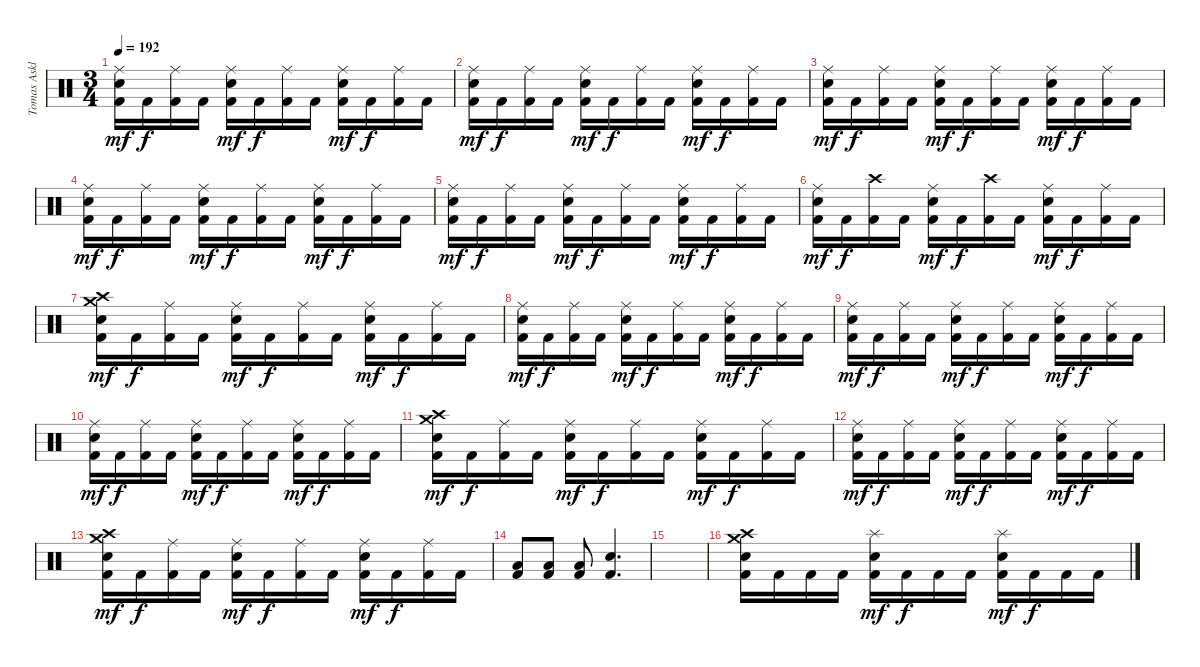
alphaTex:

\track ("Tomas Asklund" "Tomas Askl") {instrument percussion}
\staff {score}
\articulation defaults
\ts (3 4)
\tempo 192
\clef neutral
\ks c
("Ride (middle)" "Snare (hit) 2" "Kick (hit) 2").16{dy mf} "Kick (hit) 2".16{dy f} ("Ride (middle)" "Kick (hit) 2").16 "Kick (hit) 2".16 ("Ride (middle)" "Snare (hit) 2" "Kick (hit) 2").16{dy mf} "Kick (hit) 2".16{dy f} ("Ride (middle)" "Kick (hit) 2").16 "Kick (hit) 2".16 ("Ride (middle)" "Snare (hit) 2" "Kick (hit) 2").16{dy mf} "Kick (hit) 2".16{dy f} ("Ride (middle)" "Kick (hit) 2").16 "Kick (hit) 2".16 |
("Ride (middle)" "Snare (hit) 2" "Kick (hit) 2").16{dy mf} "Kick (hit) 2".16{dy f} ("Ride (middle)" "Kick (hit) 2").16 "Kick (hit) 2".16 ("Ride (middle)" "Snare (hit) 2" "Kick (hit) 2").16{dy mf} "Kick (hit) 2".16{dy f} ("Ride (middle)" "Kick (hit) 2").16 "Kick (hit) 2".16 ("Ride (middle)" "Snare (hit) 2" "Kick (hit) 2").16{dy mf} "Kick (hit) 2".16{dy f} ("Ride (middle)" "Kick (hit) 2").16 "Kick (hit) 2".16 |
("Ride (middle)" "Snare (hit) 2" "Kick (hit) 2").16{dy mf} "Kick (hit) 2".16{dy f} ("Ride (middle)" "Kick (hit) 2").16 "Kick (hit) 2".16 ("Ride (middle)" "Snare (hit) 2" "Kick (hit) 2").16{dy mf} "Kick (hit) 2".16{dy f} ("Ride (middle)" "Kick (hit) 2").16 "Kick (hit) 2".16 ("Ride (middle)" "Snare (hit) 2" "Kick (hit) 2").16{dy mf} "Kick (hit) 2".16{dy f} ("Ride (middle)" "Kick (hit) 2").16 "Kick (hit) 2".16 |
("Ride (middle)" "Snare (hit) 2" "Kick (hit) 2").16{dy mf} "Kick (hit) 2".16{dy f} ("Ride (middle)" "Kick (hit) 2").16 "Kick (hit) 2".16 ("Ride (middle)" "Snare (hit) 2" "Kick (hit) 2").16{dy mf} "Kick (hit) 2".16{dy f} ("Ride (middle)" "Kick (hit) 2").16 "Kick (hit) 2".16 ("Ride (middle)" "Snare (hit) 2" "Kick (hit) 2").16{dy mf} "Kick (hit) 2".16{dy f} ("Ride (middle)" "Kick (hit) 2").16 "Kick (hit) 2".16 |
("Ride (middle)" "Snare (hit) 2" "Kick (hit) 2").16{dy mf} "Kick (hit) 2".16{dy f} ("Ride (middle)" "Kick (hit) 2").16 "Kick (hit) 2".16 ("Ride (middle)" "Snare (hit) 2" "Kick (hit) 2").16{dy mf} "Kick (hit) 2".16{dy f} ("Ride (middle)" "Kick (hit) 2").16 "Kick (hit) 2".16 ("Ride (middle)" "Snare (hit) 2" "Kick (hit) 2").16{dy mf} "Kick (hit) 2".16{dy f} ("Ride (middle)" "Kick (hit) 2").16 "Kick (hit) 2".16 |
("Ride (middle)" "Snare (hit) 2" "Kick (hit) 2").16{dy mf} "Kick (hit) 2".16{dy f} ("Crash high (hit)" "Kick (hit) 2").16 "Kick (hit) 2".16 ("Ride (middle)" "Snare (hit) 2" "Kick (hit) 2").16{dy mf} "Kick (hit) 2".16{dy f} ("Crash high (hit)" "Kick (hit) 2").16 "Kick (hit) 2".16 ("Ride (middle)" "Snare (hit) 2" "Kick (hit) 2").16{dy mf} "Kick (hit) 2".16{dy f} ("Ride (middle)" "Kick (hit) 2").16 "Kick (hit) 2".16 |
("Crash medium (hit)" "Crash high (hit)" "Snare (hit) 2" "Kick (hit) 2").16{dy mf} "Kick (hit) 2".16{dy f} ("Ride (middle)" "Kick (hit) 2").16 "Kick (hit) 2".16 ("Ride (middle)" "Snare (hit) 2" "Kick (hit) 2").16{dy mf} "Kick (hit) 2".16{dy f} ("Ride (middle)" "Kick (hit) 2").16 "Kick (hit) 2".16 ("Ride (middle)" "Snare (hit) 2" "Kick (hit) 2").16{dy mf} "Kick (hit) 2".16{dy f} ("Ride (middle)" "Kick (hit) 2").16 "Kick (hit) 2".16 |
("Ride (middle)" "Snare (hit) 2" "Kick (hit) 2").16{dy mf} "Kick (hit) 2".16{dy f} ("Ride (middle)" "Kick (hit) 2").16 "Kick (hit) 2".16 ("Ride (middle)" "Snare (hit) 2" "Kick (hit) 2").16{dy mf} "Kick (hit) 2".16{dy f} ("Ride (middle)" "Kick (hit) 2").16 "Kick (hit) 2".16 ("Ride (middle)" "Snare (hit) 2" "Kick (hit) 2").16{dy mf} "Kick (hit) 2".16{dy f} ("Ride (middle)" "Kick (hit) 2").16 "Kick (hit) 2".16 |
("Ride (middle)" "Snare (hit) 2" "Kick (hit) 2").16{dy mf} "Kick (hit) 2".16{dy f} ("Ride (middle)" "Kick (hit) 2").16 "Kick (hit) 2".16 ("Ride (middle)" "Snare (hit) 2" "Kick (hit) 2").16{dy mf} "Kick (hit) 2".16{dy f} ("Ride (middle)" "Kick (hit) 2").16 "Kick (hit) 2".16 ("Ride (middle)" "Snare (hit) 2" "Kick (hit) 2").16{dy mf} "Kick (hit) 2".16{dy f} ("Ride (middle)" "Kick (hit) 2").16 "Kick (hit) 2".16 |
("Ride (middle)" "Snare (hit) 2" "Kick (hit) 2").16{dy mf} "Kick (hit) 2".16{dy f} ("Ride (middle)" "Kick (hit) 2").16 "Kick (hit) 2".16 ("Ride (middle)" "Snare (hit) 2" "Kick (hit) 2").16{dy mf} "Kick (hit) 2".16{dy f} ("Ride (middle)" "Kick (hit) 2").16 "Kick (hit) 2".16 ("Ride (middle)" "Snare (hit) 2" "Kick (hit) 2").16{dy mf} "Kick (hit) 2".16{dy f} ("Ride (middle)" "Kick (hit) 2").16 "Kick (hit) 2".16 |
("Crash medium (hit)" "Crash high (hit)" "Snare (hit) 2" "Kick (hit) 2").16{dy mf} "Kick (hit) 2".16{dy f} ("Ride (middle)" "Kick (hit) 2").16 "Kick (hit) 2".16 ("Ride (middle)" "Snare (hit) 2" "Kick (hit) 2").16{dy mf} "Kick (hit) 2".16{dy f} ("Ride (middle)" "Kick (hit) 2").16 "Kick (hit) 2".16 ("Ride (middle)" "Snare (hit) 2" "Kick (hit) 2").16{dy mf} "Kick (hit) 2".16{dy f} ("Ride (middle)" "Kick (hit) 2").16 "Kick (hit) 2".16 |
("Ride (middle)" "Snare (hit) 2" "Kick (hit) 2").16{dy mf} "Kick (hit) 2".16{dy f} ("Ride (middle)" "Kick (hit) 2").16 "Kick (hit) 2".16 ("Ride (middle)" "Snare (hit) 2" "Kick (hit) 2").16{dy mf} "Kick (hit) 2".16{dy f} ("Ride (middle)" "Kick (hit) 2").16 "Kick (hit) 2".16 ("Ride (middle)" "Snare (hit) 2" "Kick (hit) 2").16{dy mf} "Kick (hit) 2".16{dy f} ("Ride (middle)" "Kick (hit) 2").16 "Kick (hit) 2".16 |
("Crash high (hit)" "Crash medium (hit)" "Snare (hit) 2" "Kick (hit) 2").16{dy mf} "Kick (hit) 2".16{dy f} ("Ride (middle)" "Kick (hit) 2").16 "Kick (hit) 2".16 ("Ride (middle)" "Snare (hit) 2" "Kick (hit) 2").16{dy mf} "Kick (hit) 2".16{dy f} ("Ride (middle)" "Kick (hit) 2").16 "Kick (hit) 2".16 ("Ride (middle)" "Snare (hit) 2" "Kick (hit) 2").16{dy mf} "Kick (hit) 2".16{dy f} ("Ride (middle)" "Kick (hit) 2").16 "Kick (hit) 2".16 |
("Low Tom (hit)" "Kick (hit) 2").8 ("Low Tom (hit)" "Kick (hit) 2").8 ("Low Tom (hit)" "Kick (hit) 2").8 ("Snare (hit) 2" "Kick (hit) 2").4{d} |
|
("Crash high (hit)" "Crash medium (hit)" "Snare (hit) 2" "Kick (hit) 2").16 "Kick (hit) 2".16 "Kick (hit) 2".16 "Kick (hit) 2".16 ("Splash (hit)" "Snare (hit) 2" "Kick (hit) 2").16{dy mf} "Kick (hit) 2".16{dy f} "Kick (hit) 2".16 "Kick (hit) 2".16 ("Splash (hit)" "Snare (hit) 2" "Kick (hit) 2").16{dy mf} "Kick (hit) 2".16{dy f} "Kick (hit) 2".16 "Kick (hit) 2".16
